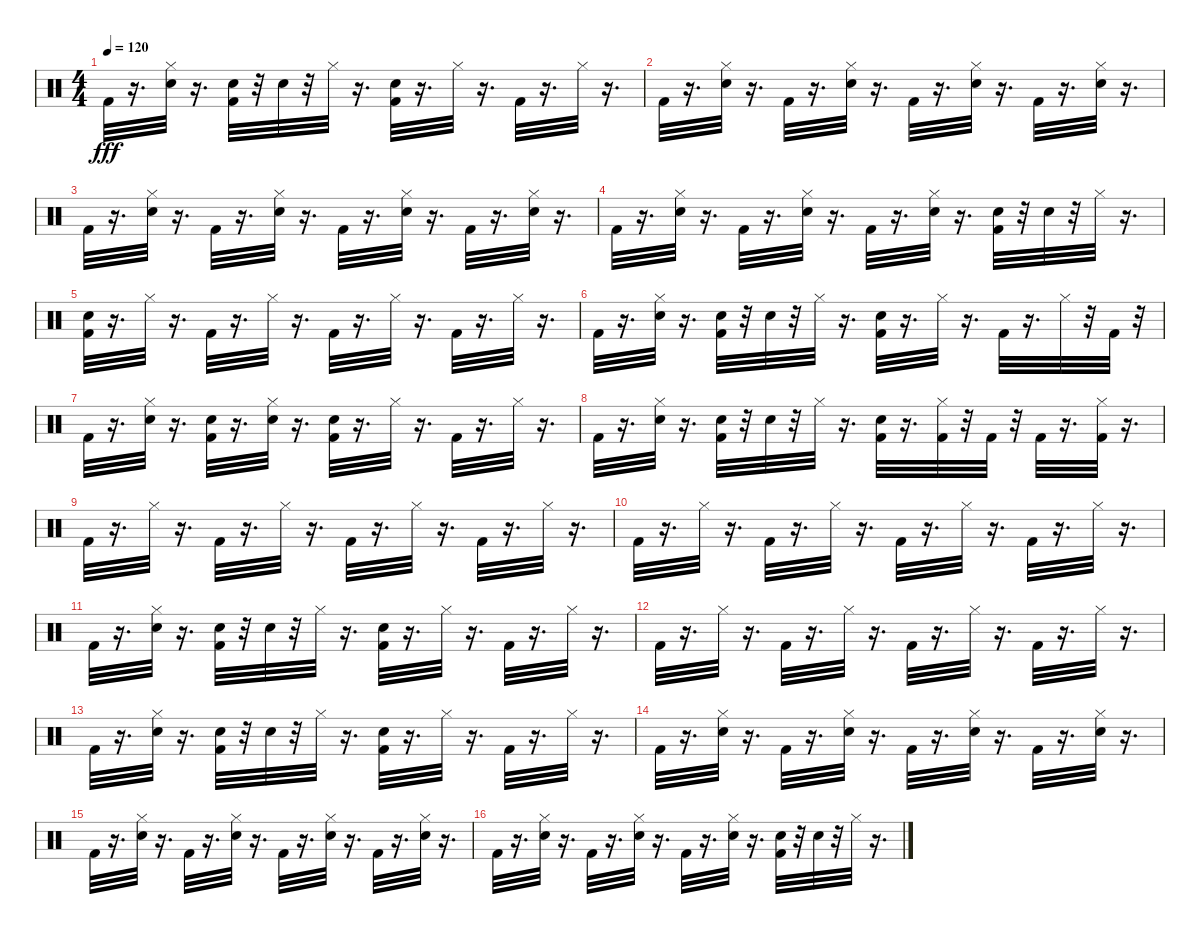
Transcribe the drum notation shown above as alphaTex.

\track "" {instrument percussion}
\staff {score}
\articulation defaults
\ts (4 4)
\tempo 120
\clef neutral
\ks c "Kick (hit) 2".32{dy fff}
r.16{d} ("Hi-Hat (closed)" "Hand Clap (hit)").32 r.16{d} ("Kick (hit) 2" "Hand Clap (hit)").32 r.32 "Hand Clap (hit)".32 r.32 "Hi-Hat (closed)".32 r.16{d} ("Hand Clap (hit)" "Kick (hit) 2").32 r.16{d} "Hi-Hat (closed)".32 r.16{d} "Kick (hit) 2".32 r.16{d} "Hi-Hat (closed)".32 r.16{d} |
"Kick (hit) 2".32 r.16{d} ("Hand Clap (hit)" "Hi-Hat (closed)").32 r.16{d} "Kick (hit) 2".32 r.16{d} ("Hand Clap (hit)" "Hi-Hat (closed)").32 r.16{d} "Kick (hit) 2".32 r.16{d} ("Hand Clap (hit)" "Hi-Hat (closed)").32 r.16{d} "Kick (hit) 2".32 r.16{d} ("Hand Clap (hit)" "Hi-Hat (closed)").32 r.16{d} |
"Kick (hit) 2".32 r.16{d} ("Hand Clap (hit)" "Hi-Hat (closed)").32 r.16{d} "Kick (hit) 2".32 r.16{d} ("Hand Clap (hit)" "Hi-Hat (closed)").32 r.16{d} "Kick (hit) 2".32 r.16{d} ("Hand Clap (hit)" "Hi-Hat (closed)").32 r.16{d} "Kick (hit) 2".32 r.16{d} ("Hand Clap (hit)" "Hi-Hat (closed)").32 r.16{d} |
"Kick (hit) 2".32 r.16{d} ("Hand Clap (hit)" "Hi-Hat (closed)").32 r.16{d} "Kick (hit) 2".32 r.16{d} ("Hand Clap (hit)" "Hi-Hat (closed)").32 r.16{d} "Kick (hit) 2".32 r.16{d} ("Hi-Hat (closed)" "Hand Clap (hit)").32 r.16{d} ("Hand Clap (hit)" "Kick (hit) 2").32 r.32 "Hand Clap (hit)".32 r.32 "Hi-Hat (closed)".32 r.16{d} |
("Hand Clap (hit)" "Kick (hit) 2").32 r.16{d} "Hi-Hat (closed)".32 r.16{d} "Kick (hit) 2".32 r.16{d} "Hi-Hat (closed)".32 r.16{d} "Kick (hit) 2".32 r.16{d} "Hi-Hat (closed)".32 r.16{d} "Kick (hit) 2".32 r.16{d} "Hi-Hat (closed)".32 r.16{d} |
"Kick (hit) 2".32 r.16{d} ("Hi-Hat (closed)" "Hand Clap (hit)").32 r.16{d} ("Kick (hit) 2" "Hand Clap (hit)").32 r.32 "Hand Clap (hit)".32 r.32 "Hi-Hat (closed)".32 r.16{d} ("Kick (hit) 2" "Hand Clap (hit)").32 r.16{d} "Hi-Hat (closed)".32 r.16{d} "Kick (hit) 2".32 r.16{d} "Hi-Hat (closed)".32 r.32 "Kick (hit) 2".32 r.32 |
"Kick (hit) 2".32 r.16{d} ("Hand Clap (hit)" "Hi-Hat (closed)").32 r.16{d} ("Hand Clap (hit)" "Kick (hit) 2").32 r.16{d} ("Hand Clap (hit)" "Hi-Hat (closed)").32 r.16{d} ("Hand Clap (hit)" "Kick (hit) 2").32 r.16{d} "Hi-Hat (closed)".32 r.16{d} "Kick (hit) 2".32 r.16{d} "Hi-Hat (closed)".32 r.16{d} |
"Kick (hit) 2".32 r.16{d} ("Hi-Hat (closed)" "Hand Clap (hit)").32 r.16{d} ("Hand Clap (hit)" "Kick (hit) 2").32 r.32 "Hand Clap (hit)".32 r.32 "Hi-Hat (closed)".32 r.16{d} ("Kick (hit) 2" "Hand Clap (hit)").32 r.16{d} ("Hi-Hat (closed)" "Kick (hit) 2").32 r.32 "Kick (hit) 2".32 r.32 "Kick (hit) 2".32 r.16{d} ("Hi-Hat (closed)" "Kick (hit) 2").32 r.16{d} |
"Kick (hit) 2".32{volume 16} r.16{d} "Hi-Hat (closed)".32 r.16{d} "Kick (hit) 2".32 r.16{d} "Hi-Hat (closed)".32 r.16{d} "Kick (hit) 2".32 r.16{d} "Hi-Hat (closed)".32 r.16{d} "Kick (hit) 2".32 r.16{d} "Hi-Hat (closed)".32 r.16{d} |
"Kick (hit) 2".32 r.16{d} "Hi-Hat (closed)".32 r.16{d} "Kick (hit) 2".32 r.16{d} "Hi-Hat (closed)".32 r.16{d} "Kick (hit) 2".32 r.16{d} "Hi-Hat (closed)".32 r.16{d} "Kick (hit) 2".32 r.16{d} "Hi-Hat (closed)".32 r.16{d} |
"Kick (hit) 2".32 r.16{d} ("Hand Clap (hit)" "Hi-Hat (closed)").32 r.16{d} ("Hand Clap (hit)" "Kick (hit) 2").32 r.32 "Hand Clap (hit)".32 r.32 "Hi-Hat (closed)".32 r.16{d} ("Hand Clap (hit)" "Kick (hit) 2").32 r.16{d} "Hi-Hat (closed)".32 r.16{d} "Kick (hit) 2".32 r.16{d} "Hi-Hat (closed)".32 r.16{d} |
"Kick (hit) 2".32 r.16{d} "Hi-Hat (closed)".32 r.16{d} "Kick (hit) 2".32 r.16{d} "Hi-Hat (closed)".32 r.16{d} "Kick (hit) 2".32 r.16{d} "Hi-Hat (closed)".32 r.16{d} "Kick (hit) 2".32 r.16{d} "Hi-Hat (closed)".32 r.16{d} |
"Kick (hit) 2".32 r.16{d} ("Hi-Hat (closed)" "Hand Clap (hit)").32 r.16{d} ("Kick (hit) 2" "Hand Clap (hit)").32 r.32 "Hand Clap (hit)".32 r.32 "Hi-Hat (closed)".32 r.16{d} ("Hand Clap (hit)" "Kick (hit) 2").32 r.16{d} "Hi-Hat (closed)".32 r.16{d} "Kick (hit) 2".32 r.16{d} "Hi-Hat (closed)".32 r.16{d} |
"Kick (hit) 2".32 r.16{d} ("Hand Clap (hit)" "Hi-Hat (closed)").32 r.16{d} "Kick (hit) 2".32 r.16{d} ("Hand Clap (hit)" "Hi-Hat (closed)").32 r.16{d} "Kick (hit) 2".32 r.16{d} ("Hand Clap (hit)" "Hi-Hat (closed)").32 r.16{d} "Kick (hit) 2".32 r.16{d} ("Hand Clap (hit)" "Hi-Hat (closed)").32 r.16{d} |
"Kick (hit) 2".32 r.16{d} ("Hand Clap (hit)" "Hi-Hat (closed)").32 r.16{d} "Kick (hit) 2".32 r.16{d} ("Hand Clap (hit)" "Hi-Hat (closed)").32 r.16{d} "Kick (hit) 2".32 r.16{d} ("Hand Clap (hit)" "Hi-Hat (closed)").32 r.16{d} "Kick (hit) 2".32 r.16{d} ("Hand Clap (hit)" "Hi-Hat (closed)").32 r.16{d} |
"Kick (hit) 2".32 r.16{d} ("Hand Clap (hit)" "Hi-Hat (closed)").32 r.16{d} "Kick (hit) 2".32 r.16{d} ("Hand Clap (hit)" "Hi-Hat (closed)").32 r.16{d} "Kick (hit) 2".32 r.16{d} ("Hi-Hat (closed)" "Hand Clap (hit)").32 r.16{d} ("Hand Clap (hit)" "Kick (hit) 2").32 r.32 "Hand Clap (hit)".32 r.32 "Hi-Hat (closed)".32 r.16{d}
